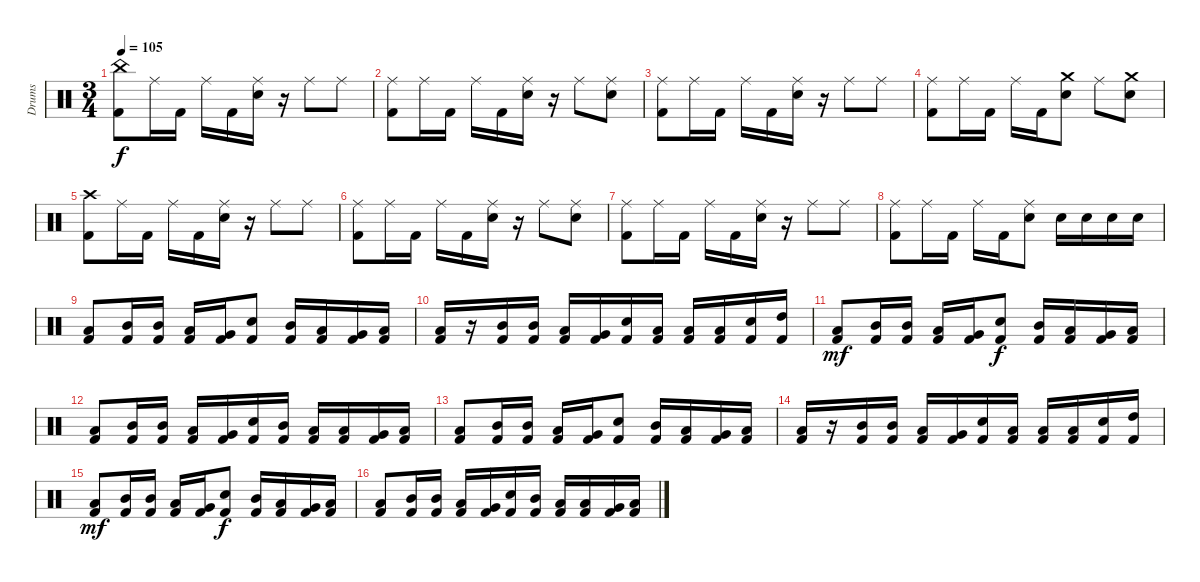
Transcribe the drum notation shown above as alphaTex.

\track ("Drums" "Drums") {instrument percussion}
\staff {score}
\articulation defaults
\ts (3 4)
\tempo 105
\clef neutral
\ks c
("China (hit)" "Kick (hit) 2").8{dy f} "Ride (middle)".16 "Kick (hit) 2".16 "Ride (middle)".16 "Kick (hit) 2".16 ("Ride (middle)" "Electric Snare (hit)").16 r.16 "Ride (middle)".8 "Ride (middle)".8 |
("Ride (middle)" "Kick (hit) 2").8 "Ride (middle)".16 "Kick (hit) 2".16 "Ride (middle)".16 "Kick (hit) 2".16 ("Ride (middle)" "Electric Snare (hit)").16 r.16 "Ride (middle)".8 ("Ride (middle)" "Electric Snare (hit)").8 |
("Ride (middle)" "Kick (hit) 2").8 "Ride (middle)".16 "Kick (hit) 2".16 "Ride (middle)".16 "Kick (hit) 2".16 ("Ride (middle)" "Electric Snare (hit)").16 r.16 "Ride (middle)".8 "Ride (middle)".8 |
("Ride (middle)" "Kick (hit) 2").8 "Ride (middle)".16 "Kick (hit) 2".16 "Ride (middle)".16 "Kick (hit) 2".16 ("Crash medium (hit)" "Electric Snare (hit)").8 "Ride (middle)".8 ("Crash medium (hit)" "Electric Snare (hit)").8 |
("Crash high (hit)" "Kick (hit) 2").8 "Ride (middle)".16 "Kick (hit) 2".16 "Ride (middle)".16 "Kick (hit) 2".16 ("Ride (middle)" "Electric Snare (hit)").16 r.16 "Ride (middle)".8 "Ride (middle)".8 |
("Ride (middle)" "Kick (hit) 2").8 "Ride (middle)".16 "Kick (hit) 2".16 "Ride (middle)".16 "Kick (hit) 2".16 ("Ride (middle)" "Electric Snare (hit)").16 r.16 "Ride (middle)".8 ("Ride (middle)" "Electric Snare (hit)").8 |
("Ride (middle)" "Kick (hit) 2").8 "Ride (middle)".16 "Kick (hit) 2".16 "Ride (middle)".16 "Kick (hit) 2".16 ("Ride (middle)" "Electric Snare (hit)").16 r.16 "Ride (middle)".8 "Ride (middle)".8 |
("Ride (middle)" "Kick (hit) 2").8 "Ride (middle)".16 "Kick (hit) 2".16 "Ride (middle)".16 "Kick (hit) 2".16 ("Ride (middle)" "Electric Snare (hit)").8 "Electric Snare (hit)".16 "Electric Snare (hit)".16 "Electric Snare (hit)".16 "Electric Snare (hit)".16 |
("Low Tom (hit)" "Kick (hit) 2").8 ("Mid Tom (hit)" "Kick (hit) 2").16 ("Mid Tom (hit)" "Kick (hit) 2").16 ("Low Tom (hit)" "Kick (hit) 2").16 ("Very Low Tom (hit)" "Kick (hit) 2").16 ("Electric Snare (hit)" "Kick (hit) 2").8 ("Mid Tom (hit)" "Kick (hit) 2").16 ("Low Tom (hit)" "Kick (hit) 2").16 ("Very Low Tom (hit)" "Kick (hit) 2").16 ("Low Floor Tom (hit)" "Kick (hit) 2").16 |
("Low Tom (hit)" "Kick (hit) 2").16 r.16 ("Mid Tom (hit)" "Kick (hit) 2").16 ("Mid Tom (hit)" "Kick (hit) 2").16 ("Low Tom (hit)" "Kick (hit) 2").16 ("Very Low Tom (hit)" "Kick (hit) 2").16 ("Electric Snare (hit)" "Kick (hit) 2").16 ("Low Tom (hit)" "Kick (hit) 2").16 ("Low Tom (hit)" "Kick (hit) 2").16 ("Low Tom (hit)" "Kick (hit) 2").16 ("Electric Snare (hit)" "Kick (hit) 2").16 ("High Tom (hit)" "Kick (hit) 2").16 |
("Low Tom (hit)" "Kick (hit) 2").8{dy mf} ("Mid Tom (hit)" "Kick (hit) 2").16 ("Mid Tom (hit)" "Kick (hit) 2").16 ("Low Tom (hit)" "Kick (hit) 2").16 ("Very Low Tom (hit)" "Kick (hit) 2").16 ("Electric Snare (hit)" "Kick (hit) 2").8{dy f} ("Mid Tom (hit)" "Kick (hit) 2").16 ("Low Tom (hit)" "Kick (hit) 2").16 ("Very Low Tom (hit)" "Kick (hit) 2").16 ("Low Floor Tom (hit)" "Kick (hit) 2").16 |
("Low Tom (hit)" "Kick (hit) 2").8 ("Mid Tom (hit)" "Kick (hit) 2").16 ("Mid Tom (hit)" "Kick (hit) 2").16 ("Low Tom (hit)" "Kick (hit) 2").16 ("Very Low Tom (hit)" "Kick (hit) 2").16 ("Electric Snare (hit)" "Kick (hit) 2").16 ("Mid Tom (hit)" "Kick (hit) 2").16 ("Low Tom (hit)" "Kick (hit) 2").16 ("Low Tom (hit)" "Kick (hit) 2").16 ("Very Low Tom (hit)" "Kick (hit) 2").16 ("Low Floor Tom (hit)" "Kick (hit) 2").16 |
("Low Tom (hit)" "Kick (hit) 2").8 ("Mid Tom (hit)" "Kick (hit) 2").16 ("Mid Tom (hit)" "Kick (hit) 2").16 ("Low Tom (hit)" "Kick (hit) 2").16 ("Very Low Tom (hit)" "Kick (hit) 2").16 ("Electric Snare (hit)" "Kick (hit) 2").8 ("Mid Tom (hit)" "Kick (hit) 2").16 ("Low Tom (hit)" "Kick (hit) 2").16 ("Very Low Tom (hit)" "Kick (hit) 2").16 ("Low Floor Tom (hit)" "Kick (hit) 2").16 |
("Low Tom (hit)" "Kick (hit) 2").16 r.16 ("Mid Tom (hit)" "Kick (hit) 2").16 ("Mid Tom (hit)" "Kick (hit) 2").16 ("Low Tom (hit)" "Kick (hit) 2").16 ("Very Low Tom (hit)" "Kick (hit) 2").16 ("Electric Snare (hit)" "Kick (hit) 2").16 ("Low Tom (hit)" "Kick (hit) 2").16 ("Low Tom (hit)" "Kick (hit) 2").16 ("Low Tom (hit)" "Kick (hit) 2").16 ("Electric Snare (hit)" "Kick (hit) 2").16 ("High Tom (hit)" "Kick (hit) 2").16 |
("Low Tom (hit)" "Kick (hit) 2").8{dy mf} ("Mid Tom (hit)" "Kick (hit) 2").16 ("Mid Tom (hit)" "Kick (hit) 2").16 ("Low Tom (hit)" "Kick (hit) 2").16 ("Very Low Tom (hit)" "Kick (hit) 2").16 ("Electric Snare (hit)" "Kick (hit) 2").8{dy f} ("Mid Tom (hit)" "Kick (hit) 2").16 ("Low Tom (hit)" "Kick (hit) 2").16 ("Very Low Tom (hit)" "Kick (hit) 2").16 ("Low Floor Tom (hit)" "Kick (hit) 2").16 |
("Low Tom (hit)" "Kick (hit) 2").8 ("Mid Tom (hit)" "Kick (hit) 2").16 ("Mid Tom (hit)" "Kick (hit) 2").16 ("Low Tom (hit)" "Kick (hit) 2").16 ("Very Low Tom (hit)" "Kick (hit) 2").16 ("Electric Snare (hit)" "Kick (hit) 2").16 ("Mid Tom (hit)" "Kick (hit) 2").16 ("Low Tom (hit)" "Kick (hit) 2").16 ("Low Tom (hit)" "Kick (hit) 2").16 ("Very Low Tom (hit)" "Kick (hit) 2").16 ("Low Floor Tom (hit)" "Kick (hit) 2").16
